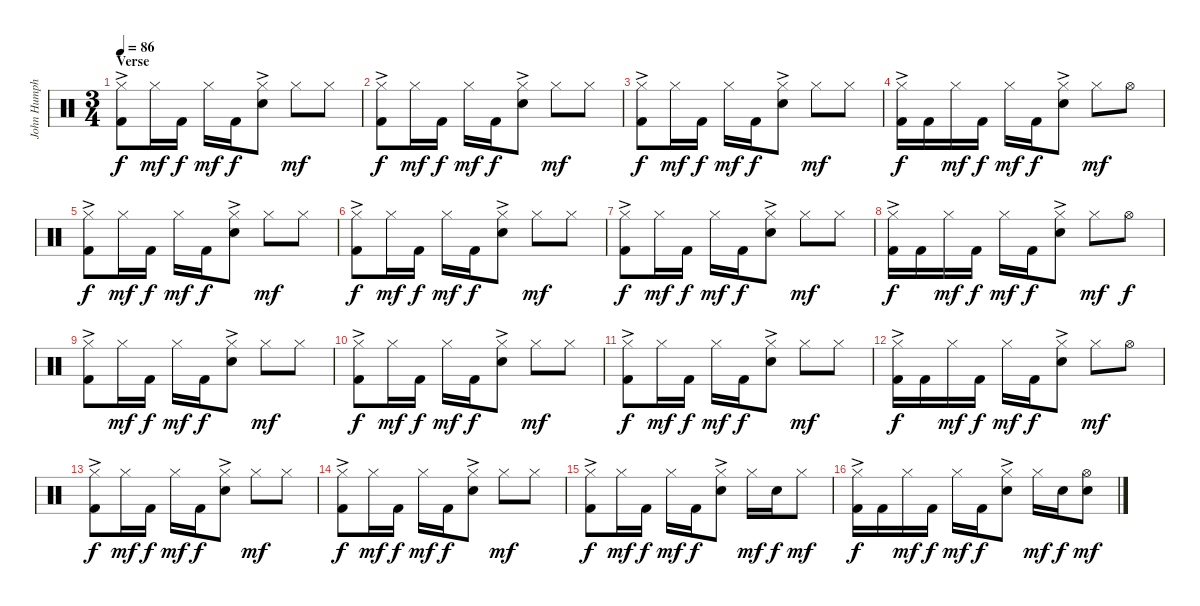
\track ("John Humphrey" "John Humph") {instrument percussion}
\staff {score}
\articulation defaults
\ts (3 4)
\section ("" "Verse")
\tempo 86
\clef neutral
\ks c
("Hi-Hat (closed)"{ac} "Kick (hit) 2").8{dy f} "Hi-Hat (closed)".16{dy mf} "Kick (hit) 2".16{dy f} "Hi-Hat (closed)".16{dy mf} "Kick (hit) 2".16{dy f} ("Hi-Hat (closed)"{ac} "Snare (hit) 2").8 "Hi-Hat (closed)".8{dy mf} "Hi-Hat (closed)".8 |
("Hi-Hat (closed)"{ac} "Kick (hit) 2").8{dy f} "Hi-Hat (closed)".16{dy mf} "Kick (hit) 2".16{dy f} "Hi-Hat (closed)".16{dy mf} "Kick (hit) 2".16{dy f} ("Hi-Hat (closed)"{ac} "Snare (hit) 2").8 "Hi-Hat (closed)".8{dy mf} "Hi-Hat (closed)".8 |
("Hi-Hat (closed)"{ac} "Kick (hit) 2").8{dy f} "Hi-Hat (closed)".16{dy mf} "Kick (hit) 2".16{dy f} "Hi-Hat (closed)".16{dy mf} "Kick (hit) 2".16{dy f} ("Hi-Hat (closed)"{ac} "Snare (hit) 2").8 "Hi-Hat (closed)".8{dy mf} "Hi-Hat (closed)".8 |
("Hi-Hat (closed)"{ac} "Kick (hit) 2").16{dy f} "Kick (hit) 2".16 "Hi-Hat (closed)".16{dy mf} "Kick (hit) 2".16{dy f} "Hi-Hat (closed)".16{dy mf} "Kick (hit) 2".16{dy f} ("Hi-Hat (closed)"{ac} "Snare (hit) 2").8 "Hi-Hat (closed)".8{dy mf} "Hi-Hat (open)".8 |
("Hi-Hat (closed)"{ac} "Kick (hit) 2").8{dy f} "Hi-Hat (closed)".16{dy mf} "Kick (hit) 2".16{dy f} "Hi-Hat (closed)".16{dy mf} "Kick (hit) 2".16{dy f} ("Hi-Hat (closed)"{ac} "Snare (hit) 2").8 "Hi-Hat (closed)".8{dy mf} "Hi-Hat (closed)".8 |
("Hi-Hat (closed)"{ac} "Kick (hit) 2").8{dy f} "Hi-Hat (closed)".16{dy mf} "Kick (hit) 2".16{dy f} "Hi-Hat (closed)".16{dy mf} "Kick (hit) 2".16{dy f} ("Hi-Hat (closed)"{ac} "Snare (hit) 2").8 "Hi-Hat (closed)".8{dy mf} "Hi-Hat (closed)".8 |
("Hi-Hat (closed)"{ac} "Kick (hit) 2").8{dy f} "Hi-Hat (closed)".16{dy mf} "Kick (hit) 2".16{dy f} "Hi-Hat (closed)".16{dy mf} "Kick (hit) 2".16{dy f} ("Hi-Hat (closed)"{ac} "Snare (hit) 2").8 "Hi-Hat (closed)".8{dy mf} "Hi-Hat (closed)".8 |
("Hi-Hat (closed)"{ac} "Kick (hit) 2").16{dy f} "Kick (hit) 2".16 "Hi-Hat (closed)".16{dy mf} "Kick (hit) 2".16{dy f} "Hi-Hat (closed)".16{dy mf} "Kick (hit) 2".16{dy f} ("Hi-Hat (closed)"{ac} "Snare (hit) 2").8 "Hi-Hat (closed)".8{dy mf} "Hi-Hat (open)".8{dy f} |
("Hi-Hat (closed)"{ac} "Kick (hit) 2").8 "Hi-Hat (closed)".16{dy mf} "Kick (hit) 2".16{dy f} "Hi-Hat (closed)".16{dy mf} "Kick (hit) 2".16{dy f} ("Hi-Hat (closed)"{ac} "Snare (hit) 2").8 "Hi-Hat (closed)".8{dy mf} "Hi-Hat (closed)".8 |
("Hi-Hat (closed)"{ac} "Kick (hit) 2").8{dy f} "Hi-Hat (closed)".16{dy mf} "Kick (hit) 2".16{dy f} "Hi-Hat (closed)".16{dy mf} "Kick (hit) 2".16{dy f} ("Hi-Hat (closed)"{ac} "Snare (hit) 2").8 "Hi-Hat (closed)".8{dy mf} "Hi-Hat (closed)".8 |
("Hi-Hat (closed)"{ac} "Kick (hit) 2").8{dy f} "Hi-Hat (closed)".16{dy mf} "Kick (hit) 2".16{dy f} "Hi-Hat (closed)".16{dy mf} "Kick (hit) 2".16{dy f} ("Hi-Hat (closed)"{ac} "Snare (hit) 2").8 "Hi-Hat (closed)".8{dy mf} "Hi-Hat (closed)".8 |
("Hi-Hat (closed)"{ac} "Kick (hit) 2").16{dy f} "Kick (hit) 2".16 "Hi-Hat (closed)".16{dy mf} "Kick (hit) 2".16{dy f} "Hi-Hat (closed)".16{dy mf} "Kick (hit) 2".16{dy f} ("Hi-Hat (closed)"{ac} "Snare (hit) 2").8 "Hi-Hat (closed)".8{dy mf} "Hi-Hat (open)".8 |
("Hi-Hat (closed)"{ac} "Kick (hit) 2").8{dy f} "Hi-Hat (closed)".16{dy mf} "Kick (hit) 2".16{dy f} "Hi-Hat (closed)".16{dy mf} "Kick (hit) 2".16{dy f} ("Hi-Hat (closed)"{ac} "Snare (hit) 2").8 "Hi-Hat (closed)".8{dy mf} "Hi-Hat (closed)".8 |
("Hi-Hat (closed)"{ac} "Kick (hit) 2").8{dy f} "Hi-Hat (closed)".16{dy mf} "Kick (hit) 2".16{dy f} "Hi-Hat (closed)".16{dy mf} "Kick (hit) 2".16{dy f} ("Hi-Hat (closed)"{ac} "Snare (hit) 2").8 "Hi-Hat (closed)".8{dy mf} "Hi-Hat (closed)".8 |
("Hi-Hat (closed)"{ac} "Kick (hit) 2").8{dy f} "Hi-Hat (closed)".16{dy mf} "Kick (hit) 2".16{dy f} "Hi-Hat (closed)".16{dy mf} "Kick (hit) 2".16{dy f} ("Hi-Hat (closed)"{ac} "Snare (hit) 2").8 "Hi-Hat (closed)".16{dy mf} "Snare (hit) 2".16{dy f} "Hi-Hat (closed)".8{dy mf} |
("Hi-Hat (closed)"{ac} "Kick (hit) 2").16{dy f} "Kick (hit) 2".16 "Hi-Hat (closed)".16{dy mf} "Kick (hit) 2".16{dy f} "Hi-Hat (closed)".16{dy mf} "Kick (hit) 2".16{dy f} ("Hi-Hat (closed)"{ac} "Snare (hit) 2").8 "Hi-Hat (closed)".16{dy mf} "Snare (hit) 2".16{dy f} ("Hi-Hat (open)" "Snare (hit) 2").8{dy mf}
